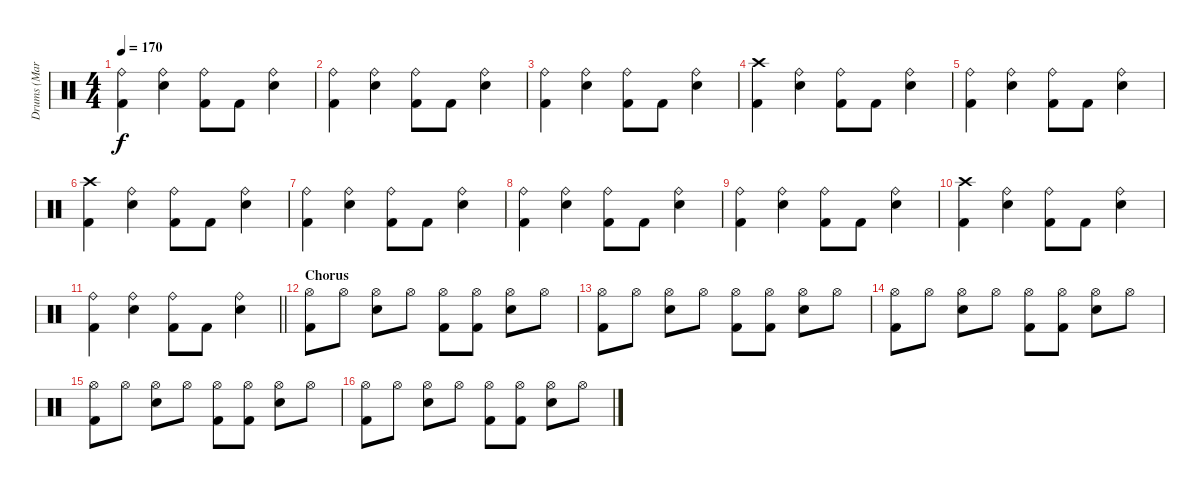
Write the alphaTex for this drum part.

\track ("Drums (Marky)" "Drums (Mar") {instrument percussion}
\staff {score}
\articulation defaults
\ts (4 4)
\tempo 170
\clef neutral
\ks c
("Ride (bell)" "Kick (hit) 2").4{dy f} ("Ride (bell)" "Snare (hit) 2").4 ("Ride (bell)" "Kick (hit) 2").8 "Kick (hit) 2".8 ("Ride (bell)" "Snare (hit) 2").4 |
("Ride (bell)" "Kick (hit) 2").4 ("Ride (bell)" "Snare (hit) 2").4 ("Ride (bell)" "Kick (hit) 2").8 "Kick (hit) 2".8 ("Ride (bell)" "Snare (hit) 2").4 |
("Ride (bell)" "Kick (hit) 2").4 ("Ride (bell)" "Snare (hit) 2").4 ("Ride (bell)" "Kick (hit) 2").8 "Kick (hit) 2".8 ("Ride (bell)" "Snare (hit) 2").4 |
("Crash high (hit)" "Kick (hit) 2").4 ("Ride (bell)" "Snare (hit) 2").4 ("Ride (bell)" "Kick (hit) 2").8 "Kick (hit) 2".8 ("Ride (bell)" "Snare (hit) 2").4 |
("Ride (bell)" "Kick (hit) 2").4 ("Ride (bell)" "Snare (hit) 2").4 ("Ride (bell)" "Kick (hit) 2").8 "Kick (hit) 2".8 ("Ride (bell)" "Snare (hit) 2").4 |
("Crash high (hit)" "Kick (hit) 2").4 ("Ride (bell)" "Snare (hit) 2").4 ("Ride (bell)" "Kick (hit) 2").8 "Kick (hit) 2".8 ("Ride (bell)" "Snare (hit) 2").4 |
("Ride (bell)" "Kick (hit) 2").4 ("Ride (bell)" "Snare (hit) 2").4 ("Ride (bell)" "Kick (hit) 2").8 "Kick (hit) 2".8 ("Ride (bell)" "Snare (hit) 2").4 |
("Ride (bell)" "Kick (hit) 2").4 ("Ride (bell)" "Snare (hit) 2").4 ("Ride (bell)" "Kick (hit) 2").8 "Kick (hit) 2".8 ("Ride (bell)" "Snare (hit) 2").4 |
("Ride (bell)" "Kick (hit) 2").4 ("Ride (bell)" "Snare (hit) 2").4 ("Ride (bell)" "Kick (hit) 2").8 "Kick (hit) 2".8 ("Ride (bell)" "Snare (hit) 2").4 |
("Crash high (hit)" "Kick (hit) 2").4 ("Ride (bell)" "Snare (hit) 2").4 ("Ride (bell)" "Kick (hit) 2").8 "Kick (hit) 2".8 ("Ride (bell)" "Snare (hit) 2").4 |
\barLineRight lightlight
("Ride (bell)" "Kick (hit) 2").4 ("Ride (bell)" "Snare (hit) 2").4 ("Ride (bell)" "Kick (hit) 2").8 "Kick (hit) 2".8 ("Ride (bell)" "Snare (hit) 2").4 |
\section ("" "Chorus")
("Hi-Hat (open)" "Kick (hit) 2").8 "Hi-Hat (open)".8 ("Hi-Hat (open)" "Snare (hit) 2").8 "Hi-Hat (open)".8 ("Hi-Hat (open)" "Kick (hit) 2").8 ("Hi-Hat (open)" "Kick (hit) 2").8 ("Hi-Hat (open)" "Snare (hit) 2").8 "Hi-Hat (open)".8 |
("Hi-Hat (open)" "Kick (hit) 2").8 "Hi-Hat (open)".8 ("Hi-Hat (open)" "Snare (hit) 2").8 "Hi-Hat (open)".8 ("Hi-Hat (open)" "Kick (hit) 2").8 ("Hi-Hat (open)" "Kick (hit) 2").8 ("Hi-Hat (open)" "Snare (hit) 2").8 "Hi-Hat (open)".8 |
("Hi-Hat (open)" "Kick (hit) 2").8 "Hi-Hat (open)".8 ("Hi-Hat (open)" "Snare (hit) 2").8 "Hi-Hat (open)".8 ("Hi-Hat (open)" "Kick (hit) 2").8 ("Hi-Hat (open)" "Kick (hit) 2").8 ("Hi-Hat (open)" "Snare (hit) 2").8 "Hi-Hat (open)".8 |
("Hi-Hat (open)" "Kick (hit) 2").8 "Hi-Hat (open)".8 ("Hi-Hat (open)" "Snare (hit) 2").8 "Hi-Hat (open)".8 ("Hi-Hat (open)" "Kick (hit) 2").8 ("Hi-Hat (open)" "Kick (hit) 2").8 ("Hi-Hat (open)" "Snare (hit) 2").8 "Hi-Hat (open)".8 |
("Hi-Hat (open)" "Kick (hit) 2").8 "Hi-Hat (open)".8 ("Hi-Hat (open)" "Snare (hit) 2").8 "Hi-Hat (open)".8 ("Hi-Hat (open)" "Kick (hit) 2").8 ("Hi-Hat (open)" "Kick (hit) 2").8 ("Hi-Hat (open)" "Snare (hit) 2").8 "Hi-Hat (open)".8
